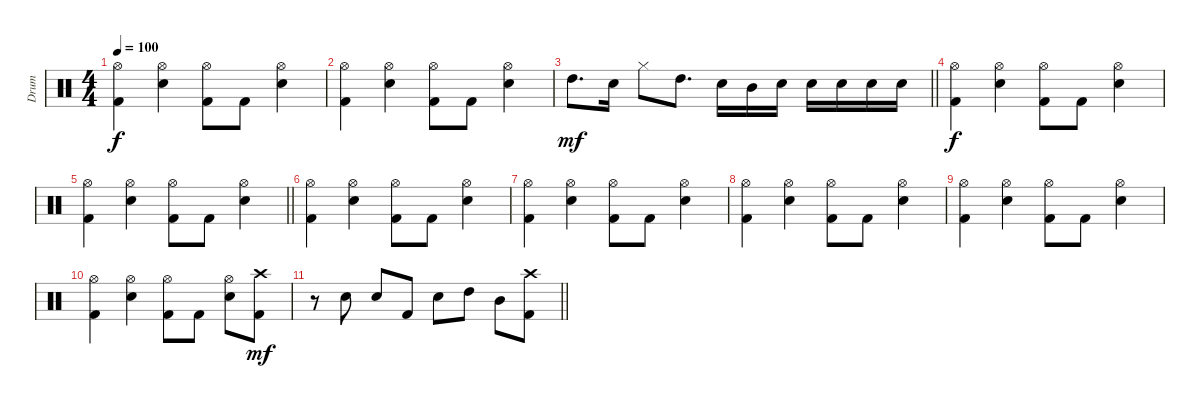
\track ("Drum" "Drum") {instrument percussion}
\staff {score}
\articulation defaults
\ts (4 4)
\tempo 100
\clef neutral
\ks c
("Kick (hit) 2" "Hi-Hat (open)").4{dy f} ("Snare (hit) 2" "Hi-Hat (open)").4 ("Kick (hit) 2" "Hi-Hat (open)").8 "Kick (hit) 2".8 ("Snare (hit) 2" "Hi-Hat (open)").4 |
("Kick (hit) 2" "Hi-Hat (open)").4 ("Snare (hit) 2" "Hi-Hat (open)").4 ("Kick (hit) 2" "Hi-Hat (open)").8 "Kick (hit) 2".8 ("Snare (hit) 2" "Hi-Hat (open)").4 |
\barLineRight lightlight "High Tom (hit)".8{d dy mf} "Snare (hit) 2".16 "Hi-Hat (closed)".8 "High Tom (hit)".8{d} "Snare (hit) 2".16 "Mid Tom (hit)".16 "Snare (hit) 2".16 "Snare (hit) 2".16 "Snare (hit) 2".16 "Snare (hit) 2".16 "Snare (hit) 2".16
|
("Kick (hit) 2" "Hi-Hat (open)").4{dy f} ("Snare (hit) 2" "Hi-Hat (open)").4 ("Kick (hit) 2" "Hi-Hat (open)").8 "Kick (hit) 2".8 ("Snare (hit) 2" "Hi-Hat (open)").4 |
\barLineRight lightlight
("Kick (hit) 2" "Hi-Hat (open)").4 ("Snare (hit) 2" "Hi-Hat (open)").4 ("Kick (hit) 2" "Hi-Hat (open)").8 "Kick (hit) 2".8 ("Snare (hit) 2" "Hi-Hat (open)").4 |
("Kick (hit) 2" "Hi-Hat (open)").4 ("Snare (hit) 2" "Hi-Hat (open)").4 ("Kick (hit) 2" "Hi-Hat (open)").8 "Kick (hit) 2".8 ("Snare (hit) 2" "Hi-Hat (open)").4 |
("Kick (hit) 2" "Hi-Hat (open)").4 ("Snare (hit) 2" "Hi-Hat (open)").4 ("Kick (hit) 2" "Hi-Hat (open)").8 "Kick (hit) 2".8 ("Snare (hit) 2" "Hi-Hat (open)").4 |
("Kick (hit) 2" "Hi-Hat (open)").4 ("Snare (hit) 2" "Hi-Hat (open)").4 ("Kick (hit) 2" "Hi-Hat (open)").8 "Kick (hit) 2".8 ("Snare (hit) 2" "Hi-Hat (open)").4 |
("Kick (hit) 2" "Hi-Hat (open)").4 ("Snare (hit) 2" "Hi-Hat (open)").4 ("Kick (hit) 2" "Hi-Hat (open)").8 "Kick (hit) 2".8 ("Snare (hit) 2" "Hi-Hat (open)").4 |
("Kick (hit) 2" "Hi-Hat (open)").4 ("Snare (hit) 2" "Hi-Hat (open)").4 ("Kick (hit) 2" "Hi-Hat (open)").8 "Kick (hit) 2".8 ("Snare (hit) 2" "Hi-Hat (open)").8 ("Kick (hit) 2" "Crash high (hit)").8{dy mf} |
\barLineRight lightlight
r.8 "Snare (hit) 2".8 "Snare (hit) 2".8 "Kick (hit) 2".8 "Snare (hit) 2".8 "High Tom (hit)".8 "Mid Tom (hit)".8 ("Kick (hit) 2" "Crash high (hit)").8
